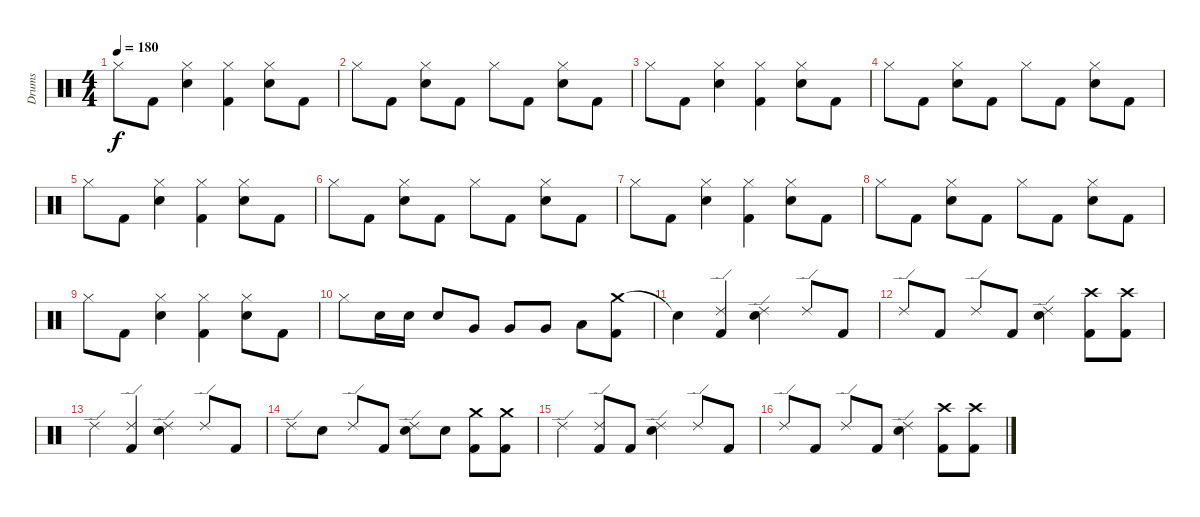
\track ("Drums" "Drums") {instrument percussion}
\staff {score}
\articulation defaults
\ts (4 4)
\tempo 180
\clef neutral
\ks c "Hi-Hat (closed)".8{dy f} "Kick (hit) 2".8
("Hi-Hat (closed)" "Electric Snare (hit)").4 ("Hi-Hat (closed)" "Kick (hit) 2").4 ("Hi-Hat (closed)" "Electric Snare (hit)").8 "Kick (hit) 2".8 |
"Hi-Hat (closed)".8 "Kick (hit) 2".8 ("Hi-Hat (closed)" "Electric Snare (hit)").8 "Kick (hit) 2".8 "Hi-Hat (closed)".8 "Kick (hit) 2".8 ("Hi-Hat (closed)" "Electric Snare (hit)").8 "Kick (hit) 2".8 |
"Hi-Hat (closed)".8 "Kick (hit) 2".8 ("Hi-Hat (closed)" "Electric Snare (hit)").4 ("Hi-Hat (closed)" "Kick (hit) 2").4 ("Hi-Hat (closed)" "Electric Snare (hit)").8 "Kick (hit) 2".8 |
"Hi-Hat (closed)".8 "Kick (hit) 2".8 ("Hi-Hat (closed)" "Electric Snare (hit)").8 "Kick (hit) 2".8 "Hi-Hat (closed)".8 "Kick (hit) 2".8 ("Hi-Hat (closed)" "Electric Snare (hit)").8 "Kick (hit) 2".8 |
"Hi-Hat (closed)".8 "Kick (hit) 2".8 ("Hi-Hat (closed)" "Electric Snare (hit)").4 ("Hi-Hat (closed)" "Kick (hit) 2").4 ("Hi-Hat (closed)" "Electric Snare (hit)").8 "Kick (hit) 2".8 |
"Hi-Hat (closed)".8 "Kick (hit) 2".8 ("Hi-Hat (closed)" "Electric Snare (hit)").8 "Kick (hit) 2".8 "Hi-Hat (closed)".8 "Kick (hit) 2".8 ("Hi-Hat (closed)" "Electric Snare (hit)").8 "Kick (hit) 2".8 |
"Hi-Hat (closed)".8 "Kick (hit) 2".8 ("Hi-Hat (closed)" "Electric Snare (hit)").4 ("Hi-Hat (closed)" "Kick (hit) 2").4 ("Hi-Hat (closed)" "Electric Snare (hit)").8 "Kick (hit) 2".8 |
"Hi-Hat (closed)".8 "Kick (hit) 2".8 ("Hi-Hat (closed)" "Electric Snare (hit)").8 "Kick (hit) 2".8 "Hi-Hat (closed)".8 "Kick (hit) 2".8 ("Hi-Hat (closed)" "Electric Snare (hit)").8 "Kick (hit) 2".8 |
"Hi-Hat (closed)".8 "Kick (hit) 2".8 ("Hi-Hat (closed)" "Electric Snare (hit)").4 ("Hi-Hat (closed)" "Kick (hit) 2").4 ("Hi-Hat (closed)" "Electric Snare (hit)").8 "Kick (hit) 2".8 |
"Hi-Hat (closed)".8 "Electric Snare (hit)".16 "Electric Snare (hit)".16 "Electric Snare (hit)".8 "Very Low Tom (hit)".8 "Very Low Tom (hit)".8 "Very Low Tom (hit)".8 "Low Floor Tom (hit)".8 ("Crash medium (hit)" "Kick (hit) 2").8 |
"Snare (hit)"{t}.4 ("Ride (edge) 2" "Kick (hit) 2").4 ("Ride (edge) 2" "Electric Snare (hit)").4 "Ride (edge) 2".8 "Kick (hit) 2".8 |
"Ride (edge) 2".8 "Kick (hit) 2".8 "Ride (edge) 2".8 "Kick (hit) 2".8 ("Ride (edge) 2" "Electric Snare (hit)").4 ("Crash high (hit)" "Kick (hit) 2").8 ("Crash high (hit)" "Kick (hit) 2").8 |
"Ride (edge) 2".4 ("Ride (edge) 2" "Kick (hit) 2").4 ("Ride (edge) 2" "Electric Snare (hit)").4 "Ride (edge) 2".8 "Kick (hit) 2".8 |
"Ride (edge) 2".8 "Electric Snare (hit)".8 "Ride (edge) 2".8 "Kick (hit) 2".8 ("Ride (edge) 2" "Electric Snare (hit)").8 "Electric Snare (hit)".8 ("Crash medium (hit)" "Kick (hit) 2").8 ("Crash medium (hit)" "Kick (hit) 2").8 |
"Ride (edge) 2".4 ("Ride (edge) 2" "Kick (hit) 2").8 "Kick (hit) 2".8 ("Ride (edge) 2" "Electric Snare (hit)").4 "Ride (edge) 2".8 "Kick (hit) 2".8 |
"Ride (edge) 2".8 "Kick (hit) 2".8 "Ride (edge) 2".8 "Kick (hit) 2".8 ("Ride (edge) 2" "Electric Snare (hit)").4 ("Crash high (hit)" "Kick (hit) 2").8 ("Crash high (hit)" "Kick (hit) 2").8
